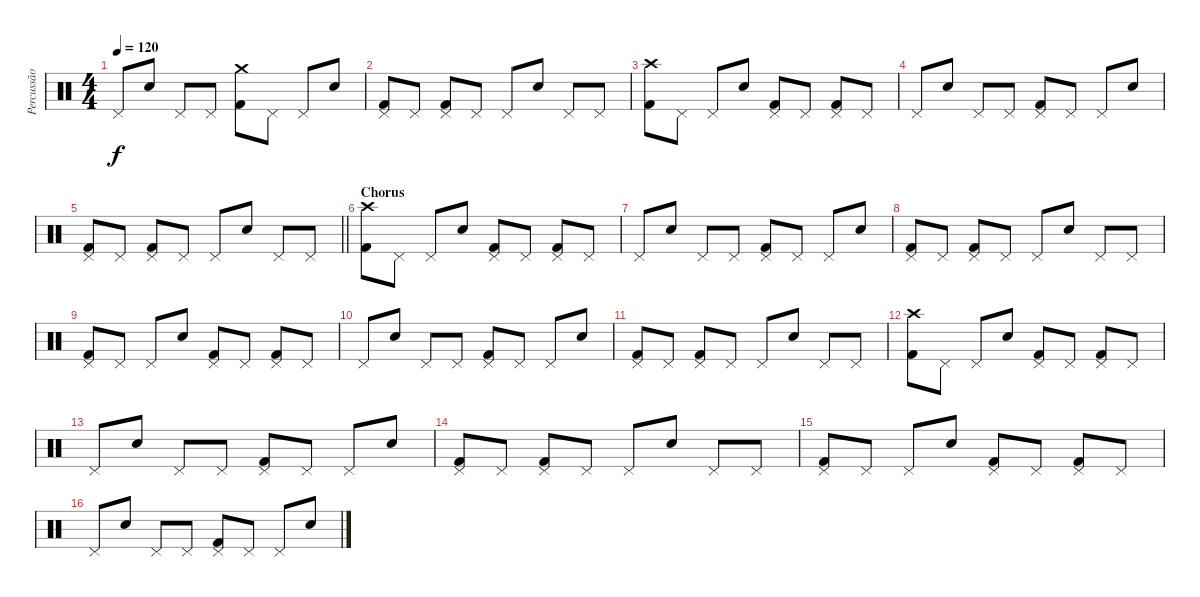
\track ("Percussão" "Percussão") {instrument percussion}
\staff {score}
\articulation defaults
\ts (4 4)
\tempo 120
\clef neutral
\ks c "Pedal Hi-Hat (hit)".8{dy f} "Snare (hit) 2".8 "Pedal Hi-Hat (hit)".8 "Pedal Hi-Hat (hit)".8
("Crash medium (hit)" "Kick (hit) 2").8 "Pedal Hi-Hat (hit)".8 "Pedal Hi-Hat (hit)".8 "Snare (hit) 2".8 |
("Pedal Hi-Hat (hit)" "Kick (hit) 2").8 "Pedal Hi-Hat (hit)".8 ("Pedal Hi-Hat (hit)" "Kick (hit) 2").8 "Pedal Hi-Hat (hit)".8 "Pedal Hi-Hat (hit)".8 "Snare (hit) 2".8 "Pedal Hi-Hat (hit)".8 "Pedal Hi-Hat (hit)".8 |
("Crash high (hit)" "Kick (hit) 2").8 "Pedal Hi-Hat (hit)".8 "Pedal Hi-Hat (hit)".8 "Snare (hit) 2".8 ("Pedal Hi-Hat (hit)" "Kick (hit) 2").8 "Pedal Hi-Hat (hit)".8 ("Pedal Hi-Hat (hit)" "Kick (hit) 2").8 "Pedal Hi-Hat (hit)".8 |
"Pedal Hi-Hat (hit)".8 "Snare (hit) 2".8 "Pedal Hi-Hat (hit)".8 "Pedal Hi-Hat (hit)".8 ("Pedal Hi-Hat (hit)" "Kick (hit) 2").8 "Pedal Hi-Hat (hit)".8 "Pedal Hi-Hat (hit)".8 "Snare (hit) 2".8 |
\barLineRight lightlight
("Pedal Hi-Hat (hit)" "Kick (hit) 2").8 "Pedal Hi-Hat (hit)".8 ("Pedal Hi-Hat (hit)" "Kick (hit) 2").8 "Pedal Hi-Hat (hit)".8 "Pedal Hi-Hat (hit)".8 "Snare (hit) 2".8 "Pedal Hi-Hat (hit)".8 "Pedal Hi-Hat (hit)".8 |
\section ("" "Chorus")
("Crash high (hit)" "Kick (hit) 2").8 "Pedal Hi-Hat (hit)".8 "Pedal Hi-Hat (hit)".8 "Snare (hit) 2".8 ("Pedal Hi-Hat (hit)" "Kick (hit) 2").8 "Pedal Hi-Hat (hit)".8 ("Pedal Hi-Hat (hit)" "Kick (hit) 2").8 "Pedal Hi-Hat (hit)".8 |
"Pedal Hi-Hat (hit)".8 "Snare (hit) 2".8 "Pedal Hi-Hat (hit)".8 "Pedal Hi-Hat (hit)".8 ("Pedal Hi-Hat (hit)" "Kick (hit) 2").8 "Pedal Hi-Hat (hit)".8 "Pedal Hi-Hat (hit)".8 "Snare (hit) 2".8 |
("Pedal Hi-Hat (hit)" "Kick (hit) 2").8 "Pedal Hi-Hat (hit)".8 ("Pedal Hi-Hat (hit)" "Kick (hit) 2").8 "Pedal Hi-Hat (hit)".8 "Pedal Hi-Hat (hit)".8 "Snare (hit) 2".8 "Pedal Hi-Hat (hit)".8 "Pedal Hi-Hat (hit)".8 |
("Pedal Hi-Hat (hit)" "Kick (hit) 2").8 "Pedal Hi-Hat (hit)".8 "Pedal Hi-Hat (hit)".8 "Snare (hit) 2".8 ("Pedal Hi-Hat (hit)" "Kick (hit) 2").8 "Pedal Hi-Hat (hit)".8 ("Pedal Hi-Hat (hit)" "Kick (hit) 2").8 "Pedal Hi-Hat (hit)".8 |
"Pedal Hi-Hat (hit)".8 "Snare (hit) 2".8 "Pedal Hi-Hat (hit)".8 "Pedal Hi-Hat (hit)".8 ("Pedal Hi-Hat (hit)" "Kick (hit) 2").8 "Pedal Hi-Hat (hit)".8 "Pedal Hi-Hat (hit)".8 "Snare (hit) 2".8 |
("Pedal Hi-Hat (hit)" "Kick (hit) 2").8 "Pedal Hi-Hat (hit)".8 ("Pedal Hi-Hat (hit)" "Kick (hit) 2").8 "Pedal Hi-Hat (hit)".8 "Pedal Hi-Hat (hit)".8 "Snare (hit) 2".8 "Pedal Hi-Hat (hit)".8 "Pedal Hi-Hat (hit)".8 |
("Crash high (hit)" "Kick (hit) 2").8 "Pedal Hi-Hat (hit)".8 "Pedal Hi-Hat (hit)".8 "Snare (hit) 2".8 ("Pedal Hi-Hat (hit)" "Kick (hit) 2").8 "Pedal Hi-Hat (hit)".8 ("Pedal Hi-Hat (hit)" "Kick (hit) 2").8 "Pedal Hi-Hat (hit)".8 |
"Pedal Hi-Hat (hit)".8 "Snare (hit) 2".8 "Pedal Hi-Hat (hit)".8 "Pedal Hi-Hat (hit)".8 ("Pedal Hi-Hat (hit)" "Kick (hit) 2").8 "Pedal Hi-Hat (hit)".8 "Pedal Hi-Hat (hit)".8 "Snare (hit) 2".8 |
("Pedal Hi-Hat (hit)" "Kick (hit) 2").8 "Pedal Hi-Hat (hit)".8 ("Pedal Hi-Hat (hit)" "Kick (hit) 2").8 "Pedal Hi-Hat (hit)".8 "Pedal Hi-Hat (hit)".8 "Snare (hit) 2".8 "Pedal Hi-Hat (hit)".8 "Pedal Hi-Hat (hit)".8 |
("Pedal Hi-Hat (hit)" "Kick (hit) 2").8 "Pedal Hi-Hat (hit)".8 "Pedal Hi-Hat (hit)".8 "Snare (hit) 2".8 ("Pedal Hi-Hat (hit)" "Kick (hit) 2").8 "Pedal Hi-Hat (hit)".8 ("Pedal Hi-Hat (hit)" "Kick (hit) 2").8 "Pedal Hi-Hat (hit)".8 |
"Pedal Hi-Hat (hit)".8 "Snare (hit) 2".8 "Pedal Hi-Hat (hit)".8 "Pedal Hi-Hat (hit)".8 ("Pedal Hi-Hat (hit)" "Kick (hit) 2").8 "Pedal Hi-Hat (hit)".8 "Pedal Hi-Hat (hit)".8 "Snare (hit) 2".8
